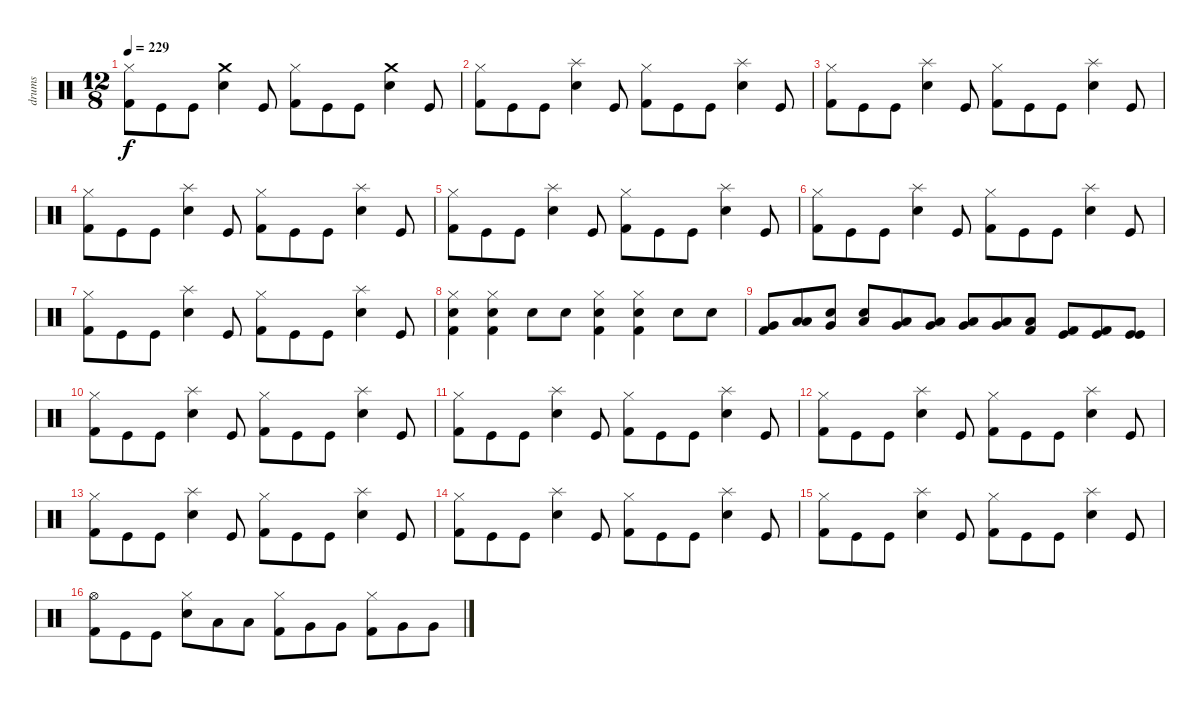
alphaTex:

\track ("drums" "drums") {instrument percussion}
\staff {score}
\articulation defaults
\ts (12 8)
\tempo 229
\clef neutral
\ks c
("Hi-Hat (closed)" "Kick (hit) 2").8{dy f} "Kick (hit)".8 "Kick (hit)".8 ("Crash medium (hit)" "Snare (hit) 2").4 "Kick (hit)".8 ("Hi-Hat (closed)" "Kick (hit) 2").8 "Kick (hit)".8 "Kick (hit)".8 ("Crash medium (hit)" "Snare (hit) 2").4 "Kick (hit)".8 |
("Hi-Hat (closed)" "Kick (hit) 2").8 "Kick (hit)".8 "Kick (hit)".8 ("Splash (hit)" "Snare (hit) 2").4 "Kick (hit)".8 ("Hi-Hat (closed)" "Kick (hit) 2").8 "Kick (hit)".8 "Kick (hit)".8 ("Splash (hit)" "Snare (hit) 2").4 "Kick (hit)".8 |
("Hi-Hat (closed)" "Kick (hit) 2").8 "Kick (hit)".8 "Kick (hit)".8 ("Splash (hit)" "Snare (hit) 2").4 "Kick (hit)".8 ("Hi-Hat (closed)" "Kick (hit) 2").8 "Kick (hit)".8 "Kick (hit)".8 ("Splash (hit)" "Snare (hit) 2").4 "Kick (hit)".8 |
("Hi-Hat (closed)" "Kick (hit) 2").8 "Kick (hit)".8 "Kick (hit)".8 ("Splash (hit)" "Snare (hit) 2").4 "Kick (hit)".8 ("Hi-Hat (closed)" "Kick (hit) 2").8 "Kick (hit)".8 "Kick (hit)".8 ("Splash (hit)" "Snare (hit) 2").4 "Kick (hit)".8 |
("Hi-Hat (closed)" "Kick (hit) 2").8 "Kick (hit)".8 "Kick (hit)".8 ("Splash (hit)" "Snare (hit) 2").4 "Kick (hit)".8 ("Hi-Hat (closed)" "Kick (hit) 2").8 "Kick (hit)".8 "Kick (hit)".8 ("Splash (hit)" "Snare (hit) 2").4 "Kick (hit)".8 |
("Hi-Hat (closed)" "Kick (hit) 2").8 "Kick (hit)".8 "Kick (hit)".8 ("Splash (hit)" "Snare (hit) 2").4 "Kick (hit)".8 ("Hi-Hat (closed)" "Kick (hit) 2").8 "Kick (hit)".8 "Kick (hit)".8 ("Splash (hit)" "Snare (hit) 2").4 "Kick (hit)".8 |
("Hi-Hat (closed)" "Kick (hit) 2").8 "Kick (hit)".8 "Kick (hit)".8 ("Splash (hit)" "Snare (hit) 2").4 "Kick (hit)".8 ("Hi-Hat (closed)" "Kick (hit) 2").8 "Kick (hit)".8 "Kick (hit)".8 ("Splash (hit)" "Snare (hit) 2").4 "Kick (hit)".8 |
("Kick (hit) 2" "Hi-Hat (closed)" "Snare (hit) 2").4 ("Kick (hit) 2" "Hi-Hat (closed)" "Snare (hit) 2").4 "Snare (hit) 2".8 "Snare (hit) 2".8 ("Kick (hit) 2" "Hi-Hat (closed)" "Snare (hit) 2").4 ("Hi-Hat (closed)" "Snare (hit) 2" "Kick (hit) 2").4 "Snare (hit) 2".8 "Snare (hit) 2".8 |
("Kick (hit) 2" "Very Low Tom (hit)").8 ("Low Floor Tom (hit)" "Low Tom (hit)").8 ("Very Low Tom (hit)" "Snare (hit) 2").8 ("Low Tom (hit)" "Snare (hit) 2").8 ("Very Low Tom (hit)" "Low Tom (hit)").8 ("Very Low Tom (hit)" "Low Tom (hit)").8 ("Low Floor Tom (hit)" "Very Low Tom (hit)").8 ("Low Floor Tom (hit)" "Very Low Tom (hit)").8 ("Kick (hit) 2" "Low Floor Tom (hit)").8 ("Kick (hit)" "Kick (hit) 2").8 ("Kick (hit) 2" "Kick (hit)").8 ("Kick (hit)" "Kick (hit)").8 |
("Hi-Hat (closed)" "Kick (hit) 2").8 "Kick (hit)".8 "Kick (hit)".8 ("Splash (hit)" "Snare (hit) 2").4 "Kick (hit)".8 ("Hi-Hat (closed)" "Kick (hit) 2").8 "Kick (hit)".8 "Kick (hit)".8 ("Splash (hit)" "Snare (hit) 2").4 "Kick (hit)".8 |
("Hi-Hat (closed)" "Kick (hit) 2").8 "Kick (hit)".8 "Kick (hit)".8 ("Splash (hit)" "Snare (hit) 2").4 "Kick (hit)".8 ("Hi-Hat (closed)" "Kick (hit) 2").8 "Kick (hit)".8 "Kick (hit)".8 ("Splash (hit)" "Snare (hit) 2").4 "Kick (hit)".8 |
("Hi-Hat (closed)" "Kick (hit) 2").8 "Kick (hit)".8 "Kick (hit)".8 ("Splash (hit)" "Snare (hit) 2").4 "Kick (hit)".8 ("Hi-Hat (closed)" "Kick (hit) 2").8 "Kick (hit)".8 "Kick (hit)".8 ("Splash (hit)" "Snare (hit) 2").4 "Kick (hit)".8 |
("Hi-Hat (closed)" "Kick (hit) 2").8 "Kick (hit)".8 "Kick (hit)".8 ("Splash (hit)" "Snare (hit) 2").4 "Kick (hit)".8 ("Hi-Hat (closed)" "Kick (hit) 2").8 "Kick (hit)".8 "Kick (hit)".8 ("Splash (hit)" "Snare (hit) 2").4 "Kick (hit)".8 |
("Hi-Hat (closed)" "Kick (hit) 2").8 "Kick (hit)".8 "Kick (hit)".8 ("Splash (hit)" "Snare (hit) 2").4 "Kick (hit)".8 ("Hi-Hat (closed)" "Kick (hit) 2").8 "Kick (hit)".8 "Kick (hit)".8 ("Splash (hit)" "Snare (hit) 2").4 "Kick (hit)".8 |
("Hi-Hat (closed)" "Kick (hit) 2").8 "Kick (hit)".8 "Kick (hit)".8 ("Splash (hit)" "Snare (hit) 2").4 "Kick (hit)".8 ("Hi-Hat (closed)" "Kick (hit) 2").8 "Kick (hit)".8 "Kick (hit)".8 ("Splash (hit)" "Snare (hit) 2").4 "Kick (hit)".8 |
("Hi-Hat (open)" "Kick (hit) 2").8 "Kick (hit)".8 "Kick (hit)".8 ("Hi-Hat (closed)" "Snare (hit) 2").8 "Low Floor Tom (hit)".8 "Low Floor Tom (hit)".8 ("Hi-Hat (closed)" "Kick (hit) 2").8 "Very Low Tom (hit)".8 "Very Low Tom (hit)".8 ("Hi-Hat (closed)" "Kick (hit) 2").8 "Very Low Tom (hit)".8 "Very Low Tom (hit)".8
